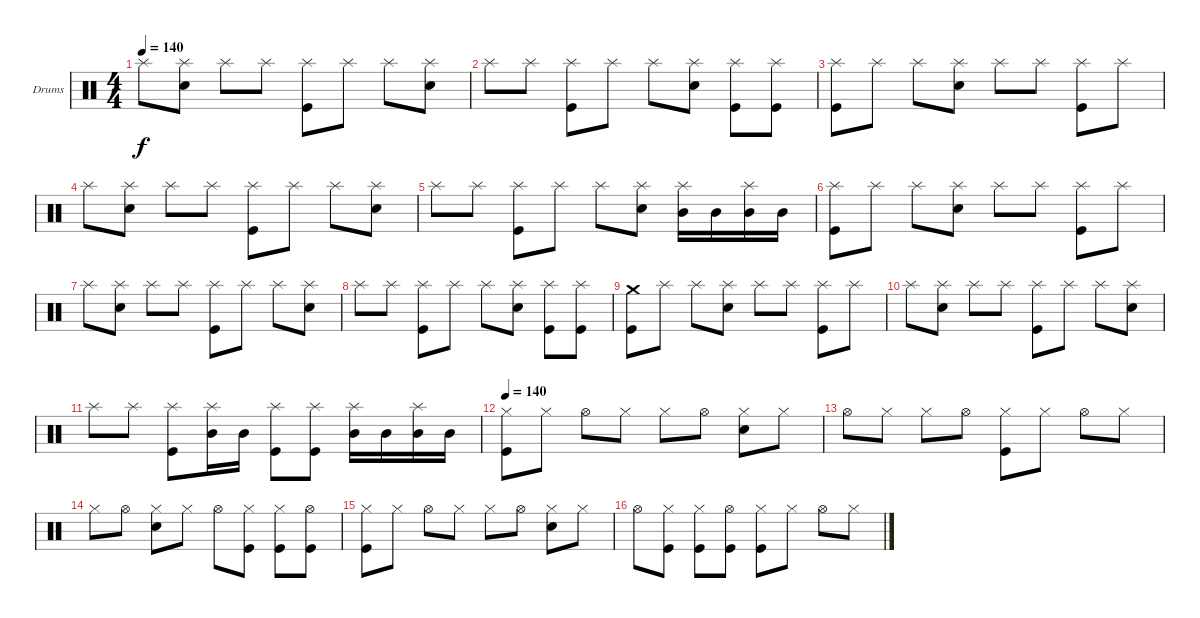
\bracketExtendMode groupsimilarinstruments
\firstSystemTrackNameOrientation horizontal
\otherSystemsTrackNameOrientation horizontal
\track ("Drumkit" "Drums") {instrument percussion}
\staff {score}
\articulation defaults
\ts (4 4)
\tempo 140
\clef neutral
\ks c "Splash (hit)".8{dy f}
("Snare (hit) 2" "Splash (hit)").8 "Splash (hit)".8 "Splash (hit)".8 ("Kick (hit)" "Splash (hit)").8 "Splash (hit)".8 "Splash (hit)".8 ("Snare (hit) 2" "Splash (hit)").8 |
"Splash (hit)".8 "Splash (hit)".8 ("Kick (hit)" "Splash (hit)").8 "Splash (hit)".8 "Splash (hit)".8 ("Snare (hit) 2" "Splash (hit)").8 ("Kick (hit)" "Splash (hit)").8 ("Kick (hit)" "Splash (hit)").8 |
("Kick (hit)" "Splash (hit)").8 "Splash (hit)".8 "Splash (hit)".8 ("Snare (hit) 2" "Splash (hit)").8 "Splash (hit)".8 "Splash (hit)".8 ("Kick (hit)" "Splash (hit)").8 "Splash (hit)".8 |
"Splash (hit)".8 ("Snare (hit) 2" "Splash (hit)").8 "Splash (hit)".8 "Splash (hit)".8 ("Kick (hit)" "Splash (hit)").8 "Splash (hit)".8 "Splash (hit)".8 ("Snare (hit) 2" "Splash (hit)").8 |
"Splash (hit)".8 "Splash (hit)".8 ("Kick (hit)" "Splash (hit)").8 "Splash (hit)".8 "Splash (hit)".8 ("Snare (hit) 2" "Splash (hit)").8 ("Mid Tom (hit)" "Splash (hit)").16 "Mid Tom (hit)".16 ("Mid Tom (hit)" "Splash (hit)").16 "Mid Tom (hit)".16 |
("Kick (hit)" "Splash (hit)").8 "Splash (hit)".8 "Splash (hit)".8 ("Snare (hit) 2" "Splash (hit)").8 "Splash (hit)".8 "Splash (hit)".8 ("Kick (hit)" "Splash (hit)").8 "Splash (hit)".8 |
"Splash (hit)".8 ("Snare (hit) 2" "Splash (hit)").8 "Splash (hit)".8 "Splash (hit)".8 ("Kick (hit)" "Splash (hit)").8 "Splash (hit)".8 "Splash (hit)".8 ("Snare (hit) 2" "Splash (hit)").8 |
"Splash (hit)".8 "Splash (hit)".8 ("Kick (hit)" "Splash (hit)").8 "Splash (hit)".8 "Splash (hit)".8 ("Snare (hit) 2" "Splash (hit)").8 ("Kick (hit)" "Splash (hit)").8 ("Kick (hit)" "Splash (hit)").8 |
("Kick (hit)" "Crash medium (hit)").8 "Splash (hit)".8 "Splash (hit)".8 ("Snare (hit) 2" "Splash (hit)").8 "Splash (hit)".8 "Splash (hit)".8 ("Kick (hit)" "Splash (hit)").8 "Splash (hit)".8 |
"Splash (hit)".8 ("Snare (hit) 2" "Splash (hit)").8 "Splash (hit)".8 "Splash (hit)".8 ("Kick (hit)" "Splash (hit)").8 "Splash (hit)".8 "Splash (hit)".8 ("Snare (hit) 2" "Splash (hit)").8 |
"Splash (hit)".8 "Splash (hit)".8 ("Kick (hit)" "Splash (hit)").8 ("Mid Tom (hit)" "Splash (hit)").16 "Mid Tom (hit)".16 ("Kick (hit)" "Splash (hit)").8 ("Kick (hit)" "Splash (hit)").8 ("Mid Tom (hit)" "Splash (hit)").16 "Mid Tom (hit)".16 ("Mid Tom (hit)" "Splash (hit)").16 "Mid Tom (hit)".16 |
\tempo 140
("Kick (hit)" "Hi-Hat (closed)").8 "Hi-Hat (closed)".8 "Hi-Hat (open)".8 "Hi-Hat (closed)".8 "Hi-Hat (closed)".8 "Hi-Hat (open)".8 ("Snare (hit) 2" "Hi-Hat (closed)").8 "Hi-Hat (closed)".8 |
"Hi-Hat (open)".8 "Hi-Hat (closed)".8 "Hi-Hat (closed)".8 "Hi-Hat (open)".8 ("Kick (hit)" "Hi-Hat (closed)").8 "Hi-Hat (closed)".8 "Hi-Hat (open)".8 "Hi-Hat (closed)".8 |
"Hi-Hat (closed)".8 "Hi-Hat (open)".8 ("Snare (hit) 2" "Hi-Hat (closed)").8 "Hi-Hat (closed)".8 "Hi-Hat (open)".8 ("Kick (hit)" "Hi-Hat (closed)").8 ("Kick (hit)" "Hi-Hat (closed)").8 ("Kick (hit)" "Hi-Hat (open)").8 |
("Kick (hit)" "Hi-Hat (closed)").8 "Hi-Hat (closed)".8 "Hi-Hat (open)".8 "Hi-Hat (closed)".8 "Hi-Hat (closed)".8 "Hi-Hat (open)".8 ("Snare (hit) 2" "Hi-Hat (closed)").8 "Hi-Hat (closed)".8 |
"Hi-Hat (open)".8 ("Kick (hit)" "Hi-Hat (closed)").8 ("Kick (hit)" "Hi-Hat (closed)").8 ("Kick (hit)" "Hi-Hat (open)").8 ("Kick (hit)" "Hi-Hat (closed)").8 "Hi-Hat (closed)".8 "Hi-Hat (open)".8 "Hi-Hat (closed)".8
